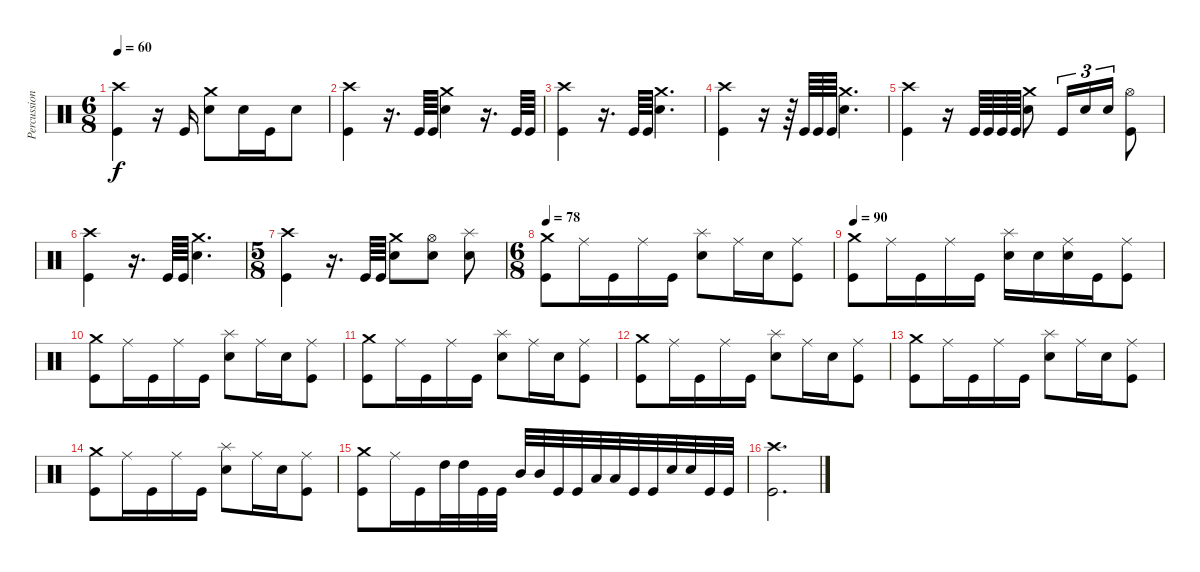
\track ("Percussions" "Percussion") {instrument percussion}
\staff {score}
\articulation defaults
\ts (6 8)
\tempo 60
\clef neutral
\ks c
("Crash high (hit)" "Kick (hit)").4{dy f} r.16 "Kick (hit)".16 ("Crash medium (hit)" "Snare (hit) 2").8 "Snare (hit) 2".16 "Kick (hit)".16 "Snare (hit) 2".8 |
("Crash high (hit)" "Kick (hit)").4 r.16{d} "Kick (hit)".64 "Kick (hit)".64 ("Crash medium (hit)" "Snare (hit) 2").4 r.16{d} "Kick (hit)".64 "Kick (hit)".64 |
("Crash high (hit)" "Kick (hit)").4 r.16{d} "Kick (hit)".64 "Kick (hit)".64 ("Crash medium (hit)" "Snare (hit) 2").4{d} |
("Crash high (hit)" "Kick (hit)").4 r.16 r.64 "Kick (hit)".64 "Kick (hit)".64 "Kick (hit)".64 ("Crash medium (hit)" "Snare (hit) 2").4{d} |
("Crash high (hit)" "Kick (hit)").4 r.16 "Kick (hit)".64 "Kick (hit)".64 "Kick (hit)".64 "Kick (hit)".64 ("Crash medium (hit)" "Snare (hit) 2").8 "Kick (hit)".16{tu (3 2)} "Snare (hit) 2".16{tu (3 2)} "Snare (hit) 2".16{tu (3 2)} ("Hi-Hat (open)" "Kick (hit)").8 |
("Crash high (hit)" "Kick (hit)").4 r.16{d} "Kick (hit)".64 "Kick (hit)".64 ("Crash medium (hit)" "Snare (hit) 2").4{d} |
\ts (5 8)
("Crash high (hit)" "Kick (hit)").4 r.16{d} "Kick (hit)".64 "Kick (hit)".64 ("Crash medium (hit)" "Snare (hit) 2").8 ("Hi-Hat (open)" "Snare (hit) 2").8 ("Splash (hit)" "Snare (hit) 2").8 |
\ts (6 8)
\tempo 108
\tempo 78
("Crash medium (hit)" "Kick (hit)").8 "Ride (middle)".16 "Kick (hit)".16 "Ride (middle)".16 "Kick (hit)".16 ("Splash (hit)" "Snare (hit) 2").8 "Ride (middle)".16 "Snare (hit) 2".16 ("Ride (middle)" "Kick (hit)").8 |
\tempo 90
("Crash medium (hit)" "Kick (hit)").8 "Ride (middle)".16 "Kick (hit)".16 "Ride (middle)".16 "Kick (hit)".16 ("Splash (hit)" "Snare (hit) 2").16 "Snare (hit) 2".16 ("Ride (middle)" "Snare (hit) 2").16 "Kick (hit)".16 ("Ride (middle)" "Kick (hit)").8 |
("Crash medium (hit)" "Kick (hit)").8 "Ride (middle)".16 "Kick (hit)".16 "Ride (middle)".16 "Kick (hit)".16 ("Splash (hit)" "Snare (hit) 2").8 "Ride (middle)".16 "Snare (hit) 2".16 ("Ride (middle)" "Kick (hit)").8 |
("Crash medium (hit)" "Kick (hit)").8 "Ride (middle)".16 "Kick (hit)".16 "Ride (middle)".16 "Kick (hit)".16 ("Splash (hit)" "Snare (hit) 2").8 "Ride (middle)".16 "Snare (hit) 2".16 ("Ride (middle)" "Kick (hit)").8 |
("Crash medium (hit)" "Kick (hit)").8 "Ride (middle)".16 "Kick (hit)".16 "Ride (middle)".16 "Kick (hit)".16 ("Splash (hit)" "Snare (hit) 2").8 "Ride (middle)".16 "Snare (hit) 2".16 ("Ride (middle)" "Kick (hit)").8 |
("Crash medium (hit)" "Kick (hit)").8 "Ride (middle)".16 "Kick (hit)".16 "Ride (middle)".16 "Kick (hit)".16 ("Splash (hit)" "Snare (hit) 2").8 "Ride (middle)".16 "Snare (hit) 2".16 ("Ride (middle)" "Kick (hit)").8 |
("Crash medium (hit)" "Kick (hit)").8 "Ride (middle)".16 "Kick (hit)".16 "Ride (middle)".16 "Kick (hit)".16 ("Splash (hit)" "Snare (hit) 2").8 "Ride (middle)".16 "Snare (hit) 2".16 ("Ride (middle)" "Kick (hit)").8 |
("Crash medium (hit)" "Kick (hit)").8 "Ride (middle)".16 "Kick (hit)".16 "High Tom (hit)".32 "High Tom (hit)".32 "Kick (hit)".32 "Kick (hit)".32 "Mid Tom (hit)".32 "Mid Tom (hit)".32 "Kick (hit)".32 "Kick (hit)".32 "Low Tom (hit)".32 "Low Tom (hit)".32 "Kick (hit)".32 "Kick (hit)".32 "Snare (hit) 2".32 "Snare (hit) 2".32 "Kick (hit)".32 "Kick (hit)".32 |
("Crash high (hit)" "Kick (hit)").2{d}
